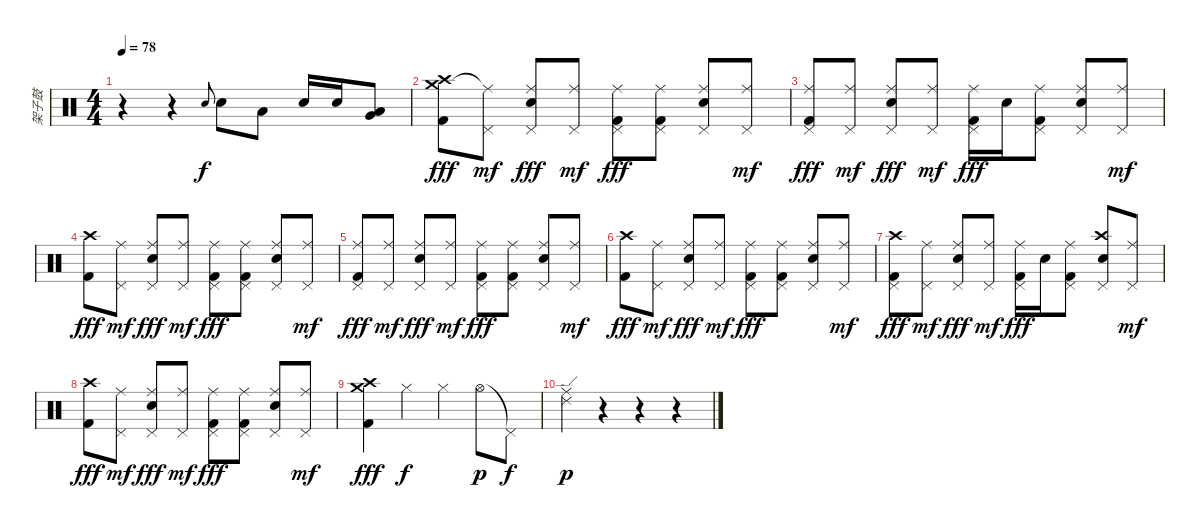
\track ("架子鼓" "架子鼓") {instrument percussion}
\staff {score}
\articulation defaults
\ts (4 4)
\tempo 78
\clef neutral
\ks c
r.4{dy f} r.4 "Electric Snare (hit)".8{gr onbeat} "Electric Snare (hit)".8 "Low Tom (hit)".8 "Electric Snare (hit)".16 "Electric Snare (hit)".16 ("Low Tom (hit)" "Very Low Tom (hit)").8 |
("Crash high (hit)" "Crash medium (hit)" "Kick (hit) 2").8{dy fff} ("Pedal Hi-Hat (hit)" "Ride (middle)"{t}).8{dy mf} ("Pedal Hi-Hat (hit)" "Ride (middle)" "Electric Snare (hit)").8{dy fff} ("Pedal Hi-Hat (hit)" "Ride (middle)").8{dy mf} ("Pedal Hi-Hat (hit)" "Ride (middle)" "Kick (hit) 2").8{dy fff} ("Pedal Hi-Hat (hit)" "Ride (middle)" "Kick (hit) 2").8 ("Pedal Hi-Hat (hit)" "Ride (middle)" "Electric Snare (hit)").8 ("Pedal Hi-Hat (hit)" "Ride (middle)").8{dy mf} |
("Pedal Hi-Hat (hit)" "Ride (middle)" "Kick (hit) 2").8{dy fff} ("Pedal Hi-Hat (hit)" "Ride (middle)").8{dy mf} ("Pedal Hi-Hat (hit)" "Ride (middle)" "Electric Snare (hit)").8{dy fff} ("Pedal Hi-Hat (hit)" "Ride (middle)").8{dy mf} ("Pedal Hi-Hat (hit)" "Ride (middle)" "Kick (hit) 2").16{dy fff} "Electric Snare (hit)".16 ("Pedal Hi-Hat (hit)" "Ride (middle)" "Kick (hit) 2").8 ("Pedal Hi-Hat (hit)" "Ride (middle)" "Electric Snare (hit)").8 ("Pedal Hi-Hat (hit)" "Ride (middle)").8{dy mf} |
("Crash high (hit)" "Kick (hit) 2").8{dy fff} ("Pedal Hi-Hat (hit)" "Ride (middle)").8{dy mf} ("Pedal Hi-Hat (hit)" "Ride (middle)" "Electric Snare (hit)").8{dy fff} ("Pedal Hi-Hat (hit)" "Ride (middle)").8{dy mf} ("Pedal Hi-Hat (hit)" "Ride (middle)" "Kick (hit) 2").8{dy fff} ("Pedal Hi-Hat (hit)" "Ride (middle)" "Kick (hit) 2").8 ("Pedal Hi-Hat (hit)" "Ride (middle)" "Electric Snare (hit)").8 ("Pedal Hi-Hat (hit)" "Ride (middle)").8{dy mf} |
("Pedal Hi-Hat (hit)" "Ride (middle)" "Kick (hit) 2").8{dy fff} ("Pedal Hi-Hat (hit)" "Ride (middle)").8{dy mf} ("Pedal Hi-Hat (hit)" "Ride (middle)" "Electric Snare (hit)").8{dy fff} ("Pedal Hi-Hat (hit)" "Ride (middle)").8{dy mf} ("Pedal Hi-Hat (hit)" "Ride (middle)" "Kick (hit) 2").8{dy fff} ("Pedal Hi-Hat (hit)" "Ride (middle)" "Kick (hit) 2").8 ("Pedal Hi-Hat (hit)" "Ride (middle)" "Electric Snare (hit)").8 ("Pedal Hi-Hat (hit)" "Ride (middle)").8{dy mf} |
("Crash high (hit)" "Kick (hit) 2").8{dy fff} ("Pedal Hi-Hat (hit)" "Ride (middle)").8{dy mf} ("Pedal Hi-Hat (hit)" "Ride (middle)" "Electric Snare (hit)").8{dy fff} ("Pedal Hi-Hat (hit)" "Ride (middle)").8{dy mf} ("Pedal Hi-Hat (hit)" "Ride (middle)" "Kick (hit) 2").8{dy fff} ("Pedal Hi-Hat (hit)" "Ride (middle)" "Kick (hit) 2").8 ("Pedal Hi-Hat (hit)" "Ride (middle)" "Electric Snare (hit)").8 ("Pedal Hi-Hat (hit)" "Ride (middle)").8{dy mf} |
("Pedal Hi-Hat (hit)" "Crash high (hit)" "Kick (hit) 2").8{dy fff} ("Pedal Hi-Hat (hit)" "Ride (middle)").8{dy mf} ("Pedal Hi-Hat (hit)" "Ride (middle)" "Electric Snare (hit)").8{dy fff} ("Pedal Hi-Hat (hit)" "Ride (middle)").8{dy mf} ("Pedal Hi-Hat (hit)" "Ride (middle)" "Kick (hit) 2").16{dy fff} "Electric Snare (hit)".16 ("Pedal Hi-Hat (hit)" "Ride (middle)" "Kick (hit) 2").8 ("Pedal Hi-Hat (hit)" "Crash high (hit)" "Electric Snare (hit)").8 ("Pedal Hi-Hat (hit)" "Ride (middle)").8{dy mf} |
("Crash high (hit)" "Kick (hit) 2").8{dy fff} ("Pedal Hi-Hat (hit)" "Ride (middle)").8{dy mf} ("Pedal Hi-Hat (hit)" "Ride (middle)" "Electric Snare (hit)").8{dy fff} ("Pedal Hi-Hat (hit)" "Ride (middle)").8{dy mf} ("Pedal Hi-Hat (hit)" "Ride (middle)" "Kick (hit) 2").8{dy fff} ("Pedal Hi-Hat (hit)" "Ride (middle)" "Kick (hit) 2").8 ("Pedal Hi-Hat (hit)" "Ride (middle)" "Electric Snare (hit)").8 ("Pedal Hi-Hat (hit)" "Ride (middle)").8{dy mf} |
("Crash medium (hit)" "Crash high (hit)" "Kick (hit) 2").4{dy fff} "Hi-Hat (closed)".4{dy f} "Hi-Hat (closed)".4 "Hi-Hat (open)".8{dy p} "Pedal Hi-Hat (hit)"{t}.8{dy f} |
("Ride (middle)" "Ride (edge) 2").4{dy p} r.4 r.4 r.4
